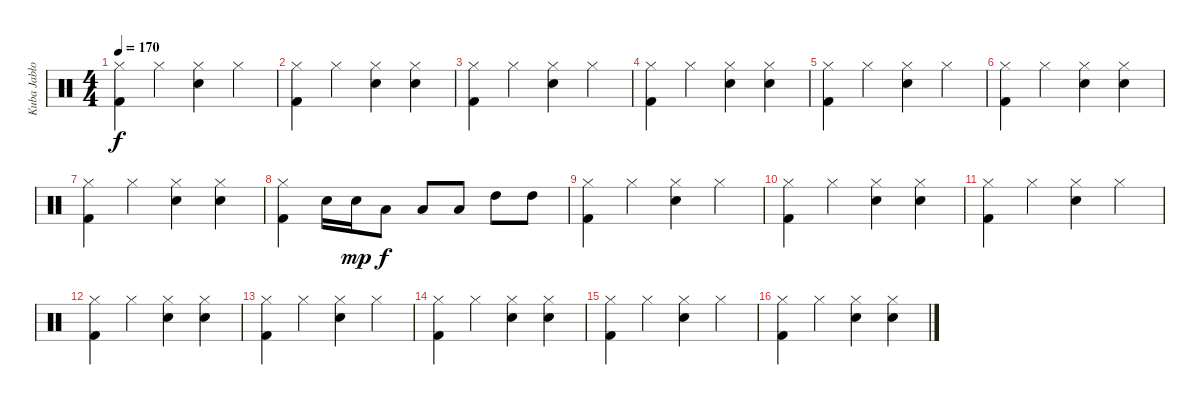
\track ("Kuba Jabłoński" "Kuba Jabło") {instrument percussion}
\staff {score}
\articulation defaults
\ts (4 4)
\tempo 170
\clef neutral
\ks c
("Kick (hit) 2" "Hi-Hat (closed)").4{dy f} "Hi-Hat (closed)".4 ("Snare (hit) 2" "Hi-Hat (closed)").4 "Hi-Hat (closed)".4 |
("Kick (hit) 2" "Hi-Hat (closed)").4 "Hi-Hat (closed)".4 ("Snare (hit) 2" "Hi-Hat (closed)").4 ("Snare (hit) 2" "Hi-Hat (closed)").4 |
("Kick (hit) 2" "Hi-Hat (closed)").4 "Hi-Hat (closed)".4 ("Snare (hit) 2" "Hi-Hat (closed)").4 "Hi-Hat (closed)".4 |
("Kick (hit) 2" "Hi-Hat (closed)").4 "Hi-Hat (closed)".4 ("Snare (hit) 2" "Hi-Hat (closed)").4 ("Snare (hit) 2" "Hi-Hat (closed)").4 |
("Kick (hit) 2" "Hi-Hat (closed)").4 "Hi-Hat (closed)".4 ("Snare (hit) 2" "Hi-Hat (closed)").4 "Hi-Hat (closed)".4 |
("Kick (hit) 2" "Hi-Hat (closed)").4 "Hi-Hat (closed)".4 ("Snare (hit) 2" "Hi-Hat (closed)").4 ("Snare (hit) 2" "Hi-Hat (closed)").4 |
("Kick (hit) 2" "Hi-Hat (closed)").4 "Hi-Hat (closed)".4 ("Snare (hit) 2" "Hi-Hat (closed)").4 ("Snare (hit) 2" "Hi-Hat (closed)").4 |
("Kick (hit) 2" "Hi-Hat (closed)").4 "Snare (hit) 2".16 "Snare (hit) 2".16{dy mp} "Low Tom (hit)".8{dy f} "Low Tom (hit)".8 "Low Tom (hit)".8 "High Tom (hit)".8 "High Tom (hit)".8 |
("Kick (hit) 2" "Hi-Hat (closed)").4 "Hi-Hat (closed)".4 ("Snare (hit) 2" "Hi-Hat (closed)").4 "Hi-Hat (closed)".4 |
("Kick (hit) 2" "Hi-Hat (closed)").4 "Hi-Hat (closed)".4 ("Snare (hit) 2" "Hi-Hat (closed)").4 ("Snare (hit) 2" "Hi-Hat (closed)").4 |
("Kick (hit) 2" "Hi-Hat (closed)").4 "Hi-Hat (closed)".4 ("Snare (hit) 2" "Hi-Hat (closed)").4 "Hi-Hat (closed)".4 |
("Kick (hit) 2" "Hi-Hat (closed)").4 "Hi-Hat (closed)".4 ("Snare (hit) 2" "Hi-Hat (closed)").4 ("Snare (hit) 2" "Hi-Hat (closed)").4 |
("Kick (hit) 2" "Hi-Hat (closed)").4 "Hi-Hat (closed)".4 ("Snare (hit) 2" "Hi-Hat (closed)").4 "Hi-Hat (closed)".4 |
("Kick (hit) 2" "Hi-Hat (closed)").4 "Hi-Hat (closed)".4 ("Snare (hit) 2" "Hi-Hat (closed)").4 ("Snare (hit) 2" "Hi-Hat (closed)").4 |
("Kick (hit) 2" "Hi-Hat (closed)").4 "Hi-Hat (closed)".4 ("Snare (hit) 2" "Hi-Hat (closed)").4 "Hi-Hat (closed)".4 |
("Kick (hit) 2" "Hi-Hat (closed)").4 "Hi-Hat (closed)".4 ("Snare (hit) 2" "Hi-Hat (closed)").4 ("Snare (hit) 2" "Hi-Hat (closed)").4
